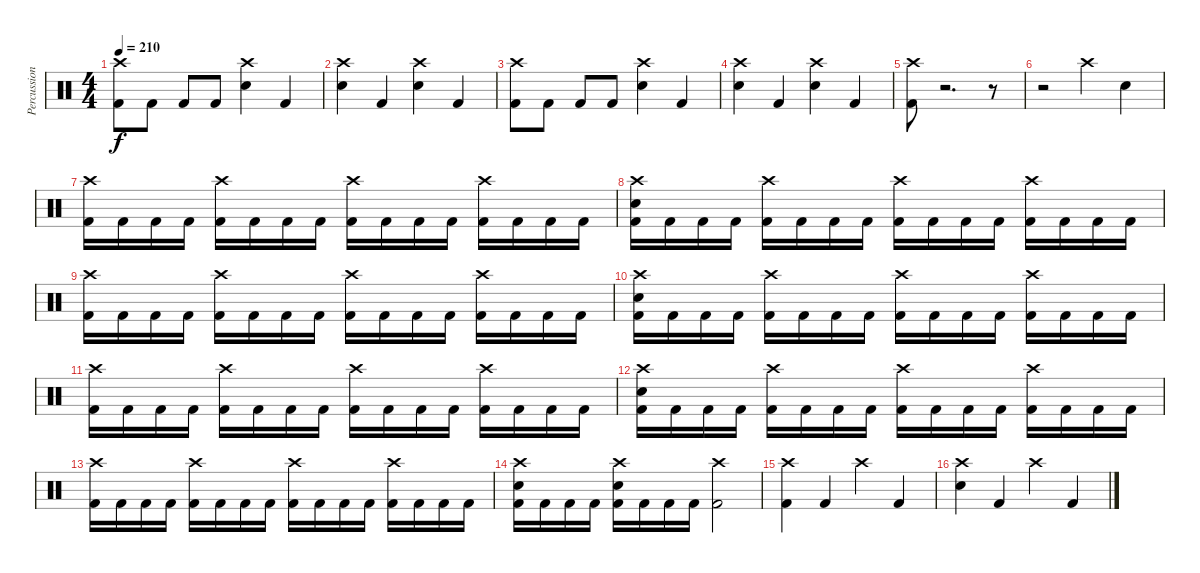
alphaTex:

\track ("Percussion" "Percussion") {instrument percussion}
\staff {score}
\articulation defaults
\ts (4 4)
\tempo 210
\clef neutral
\ks c
("Crash high (hit)" "Kick (hit) 2").8{dy f} "Kick (hit) 2".8 "Kick (hit) 2".8 "Kick (hit) 2".8 ("Crash high (hit)" "Electric Snare (hit)").4 "Kick (hit) 2".4 |
("Crash high (hit)" "Electric Snare (hit)").4 "Kick (hit) 2".4 ("Crash high (hit)" "Electric Snare (hit)").4 "Kick (hit) 2".4 |
("Crash high (hit)" "Kick (hit) 2").8 "Kick (hit) 2".8 "Kick (hit) 2".8 "Kick (hit) 2".8 ("Crash high (hit)" "Electric Snare (hit)").4 "Kick (hit) 2".4 |
("Crash high (hit)" "Electric Snare (hit)").4 "Kick (hit) 2".4 ("Crash high (hit)" "Electric Snare (hit)").4 "Kick (hit) 2".4 |
("Crash high (hit)" "Kick (hit) 2").8 r.2{d} r.8 |
r.2 "Crash high (hit)".4 "Electric Snare (hit)".4 |
("Crash high (hit)" "Kick (hit) 2").16 "Kick (hit) 2".16 "Kick (hit) 2".16 "Kick (hit) 2".16 ("Crash high (hit)" "Kick (hit) 2").16 "Kick (hit) 2".16 "Kick (hit) 2".16 "Kick (hit) 2".16 ("Crash high (hit)" "Kick (hit) 2").16 "Kick (hit) 2".16 "Kick (hit) 2".16 "Kick (hit) 2".16 ("Crash high (hit)" "Kick (hit) 2").16 "Kick (hit) 2".16 "Kick (hit) 2".16 "Kick (hit) 2".16 |
("Crash high (hit)" "Electric Snare (hit)" "Kick (hit) 2").16 "Kick (hit) 2".16 "Kick (hit) 2".16 "Kick (hit) 2".16 ("Crash high (hit)" "Kick (hit) 2").16 "Kick (hit) 2".16 "Kick (hit) 2".16 "Kick (hit) 2".16 ("Crash high (hit)" "Kick (hit) 2").16 "Kick (hit) 2".16 "Kick (hit) 2".16 "Kick (hit) 2".16 ("Crash high (hit)" "Kick (hit) 2").16 "Kick (hit) 2".16 "Kick (hit) 2".16 "Kick (hit) 2".16 |
("Crash high (hit)" "Kick (hit) 2").16 "Kick (hit) 2".16 "Kick (hit) 2".16 "Kick (hit) 2".16 ("Crash high (hit)" "Kick (hit) 2").16 "Kick (hit) 2".16 "Kick (hit) 2".16 "Kick (hit) 2".16 ("Crash high (hit)" "Kick (hit) 2").16 "Kick (hit) 2".16 "Kick (hit) 2".16 "Kick (hit) 2".16 ("Crash high (hit)" "Kick (hit) 2").16 "Kick (hit) 2".16 "Kick (hit) 2".16 "Kick (hit) 2".16 |
("Crash high (hit)" "Electric Snare (hit)" "Kick (hit) 2").16 "Kick (hit) 2".16 "Kick (hit) 2".16 "Kick (hit) 2".16 ("Crash high (hit)" "Kick (hit) 2").16 "Kick (hit) 2".16 "Kick (hit) 2".16 "Kick (hit) 2".16 ("Crash high (hit)" "Kick (hit) 2").16 "Kick (hit) 2".16 "Kick (hit) 2".16 "Kick (hit) 2".16 ("Crash high (hit)" "Kick (hit) 2").16 "Kick (hit) 2".16 "Kick (hit) 2".16 "Kick (hit) 2".16 |
("Crash high (hit)" "Kick (hit) 2").16 "Kick (hit) 2".16 "Kick (hit) 2".16 "Kick (hit) 2".16 ("Crash high (hit)" "Kick (hit) 2").16 "Kick (hit) 2".16 "Kick (hit) 2".16 "Kick (hit) 2".16 ("Crash high (hit)" "Kick (hit) 2").16 "Kick (hit) 2".16 "Kick (hit) 2".16 "Kick (hit) 2".16 ("Crash high (hit)" "Kick (hit) 2").16 "Kick (hit) 2".16 "Kick (hit) 2".16 "Kick (hit) 2".16 |
("Crash high (hit)" "Electric Snare (hit)" "Kick (hit) 2").16 "Kick (hit) 2".16 "Kick (hit) 2".16 "Kick (hit) 2".16 ("Crash high (hit)" "Kick (hit) 2").16 "Kick (hit) 2".16 "Kick (hit) 2".16 "Kick (hit) 2".16 ("Crash high (hit)" "Kick (hit) 2").16 "Kick (hit) 2".16 "Kick (hit) 2".16 "Kick (hit) 2".16 ("Crash high (hit)" "Kick (hit) 2").16 "Kick (hit) 2".16 "Kick (hit) 2".16 "Kick (hit) 2".16 |
("Crash high (hit)" "Kick (hit) 2").16 "Kick (hit) 2".16 "Kick (hit) 2".16 "Kick (hit) 2".16 ("Crash high (hit)" "Kick (hit) 2").16 "Kick (hit) 2".16 "Kick (hit) 2".16 "Kick (hit) 2".16 ("Crash high (hit)" "Kick (hit) 2").16 "Kick (hit) 2".16 "Kick (hit) 2".16 "Kick (hit) 2".16 ("Crash high (hit)" "Kick (hit) 2").16 "Kick (hit) 2".16 "Kick (hit) 2".16 "Kick (hit) 2".16 |
("Crash high (hit)" "Electric Snare (hit)" "Kick (hit) 2").16 "Kick (hit) 2".16 "Kick (hit) 2".16 "Kick (hit) 2".16 ("Crash high (hit)" "Electric Snare (hit)" "Kick (hit) 2").16 "Kick (hit) 2".16 "Kick (hit) 2".16 "Kick (hit) 2".16 ("Crash high (hit)" "Kick (hit) 2").2 |
("Crash high (hit)" "Kick (hit) 2").4 "Kick (hit) 2".4 "Crash high (hit)".4 "Kick (hit) 2".4 |
("Crash high (hit)" "Electric Snare (hit)").4 "Kick (hit) 2".4 "Crash high (hit)".4 "Kick (hit) 2".4
